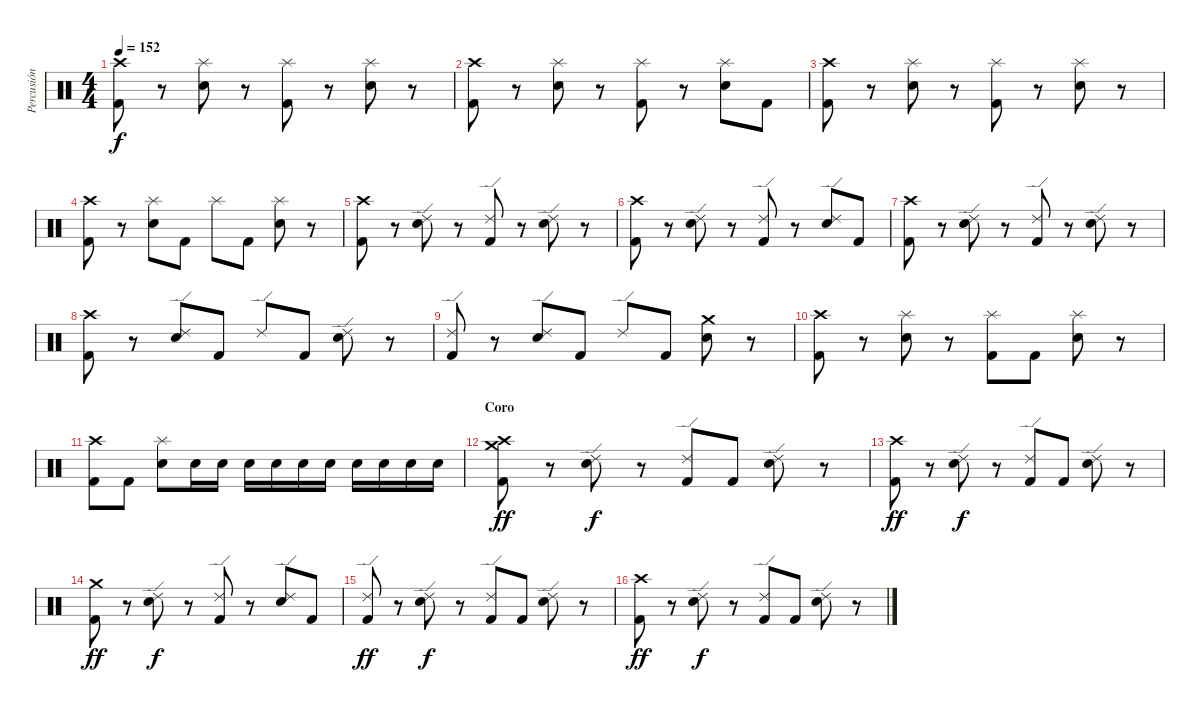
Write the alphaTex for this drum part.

\track ("Percusión" "Percusión") {instrument percussion}
\staff {score}
\articulation defaults
\ts (4 4)
\tempo 152
\clef neutral
\ks c
("Crash high (hit)" "Kick (hit) 2").8{dy f} r.8 ("Splash (hit)" "Snare (hit) 2").8 r.8 ("Splash (hit)" "Kick (hit) 2").8 r.8 ("Splash (hit)" "Snare (hit) 2").8 r.8 |
("Crash high (hit)" "Kick (hit) 2").8 r.8 ("Splash (hit)" "Snare (hit) 2").8 r.8 ("Splash (hit)" "Kick (hit) 2").8 r.8 ("Splash (hit)" "Snare (hit) 2").8 "Kick (hit) 2".8 |
("Crash high (hit)" "Kick (hit) 2").8 r.8 ("Splash (hit)" "Snare (hit) 2").8 r.8 ("Splash (hit)" "Kick (hit) 2").8 r.8 ("Splash (hit)" "Snare (hit) 2").8 r.8 |
("Crash high (hit)" "Kick (hit) 2").8 r.8 ("Splash (hit)" "Snare (hit) 2").8 "Kick (hit) 2".8 "Splash (hit)".8 "Kick (hit) 2".8 ("Splash (hit)" "Snare (hit) 2").8 r.8 |
("Crash high (hit)" "Kick (hit) 2").8 r.8 ("Ride (edge) 2" "Snare (hit) 2").8 r.8 ("Ride (edge) 2" "Kick (hit) 2").8 r.8 ("Ride (edge) 2" "Snare (hit) 2").8 r.8 |
("Crash high (hit)" "Kick (hit) 2").8 r.8 ("Ride (edge) 2" "Snare (hit) 2").8 r.8 ("Ride (edge) 2" "Kick (hit) 2").8 r.8 ("Ride (edge) 2" "Snare (hit) 2").8 "Kick (hit) 2".8 |
("Crash high (hit)" "Kick (hit) 2").8 r.8 ("Ride (edge) 2" "Snare (hit) 2").8 r.8 ("Ride (edge) 2" "Kick (hit) 2").8 r.8 ("Ride (edge) 2" "Snare (hit) 2").8 r.8 |
("Crash high (hit)" "Kick (hit) 2").8 r.8 ("Ride (edge) 2" "Snare (hit) 2").8 "Kick (hit) 2".8 "Ride (edge) 2".8 "Kick (hit) 2".8 ("Ride (edge) 2" "Snare (hit) 2").8 r.8 |
("Ride (edge) 2" "Kick (hit) 2").8 r.8 ("Ride (edge) 2" "Snare (hit) 2").8 "Kick (hit) 2".8 "Ride (edge) 2".8 "Kick (hit) 2".8 ("Crash medium (hit)" "Snare (hit) 2").8 r.8 |
("Crash high (hit)" "Kick (hit) 2").8 r.8 ("Splash (hit)" "Snare (hit) 2").8 r.8 ("Splash (hit)" "Kick (hit) 2").8 "Kick (hit) 2".8 ("Splash (hit)" "Snare (hit) 2").8 r.8 |
("Crash high (hit)" "Kick (hit) 2").8 "Kick (hit) 2".8 ("Splash (hit)" "Snare (hit) 2").8 "Snare (hit) 2".16 "Snare (hit) 2".16 "Snare (hit) 2".16 "Snare (hit) 2".16 "Snare (hit) 2".16 "Snare (hit) 2".16 "Snare (hit) 2".16 "Snare (hit) 2".16 "Snare (hit) 2".16 "Snare (hit) 2".16 |
\section ("" "Coro")
("Crash high (hit)" "Crash medium (hit)" "Kick (hit) 2").8{dy ff} r.8 ("Ride (edge) 2" "Snare (hit) 2").8{dy f} r.8 ("Ride (edge) 2" "Kick (hit) 2").8 "Kick (hit) 2".8 ("Ride (edge) 2" "Snare (hit) 2").8 r.8 |
("Crash high (hit)" "Kick (hit) 2").8{dy ff} r.8 ("Ride (edge) 2" "Snare (hit) 2").8{dy f} r.8 ("Ride (edge) 2" "Kick (hit) 2").8 "Kick (hit) 2".8 ("Ride (edge) 2" "Snare (hit) 2").8 r.8 |
("Crash medium (hit)" "Kick (hit) 2").8{dy ff} r.8 ("Ride (edge) 2" "Snare (hit) 2").8{dy f} r.8 ("Ride (edge) 2" "Kick (hit) 2").8 r.8 ("Ride (edge) 2" "Snare (hit) 2").8 "Kick (hit) 2".8 |
("Ride (edge) 2" "Kick (hit) 2").8{dy ff} r.8 ("Ride (edge) 2" "Snare (hit) 2").8{dy f} r.8 ("Ride (edge) 2" "Kick (hit) 2").8 "Kick (hit) 2".8 ("Ride (edge) 2" "Snare (hit) 2").8 r.8 |
("Crash high (hit)" "Kick (hit) 2").8{dy ff} r.8 ("Ride (edge) 2" "Snare (hit) 2").8{dy f} r.8 ("Ride (edge) 2" "Kick (hit) 2").8 "Kick (hit) 2".8 ("Ride (edge) 2" "Snare (hit) 2").8 r.8
